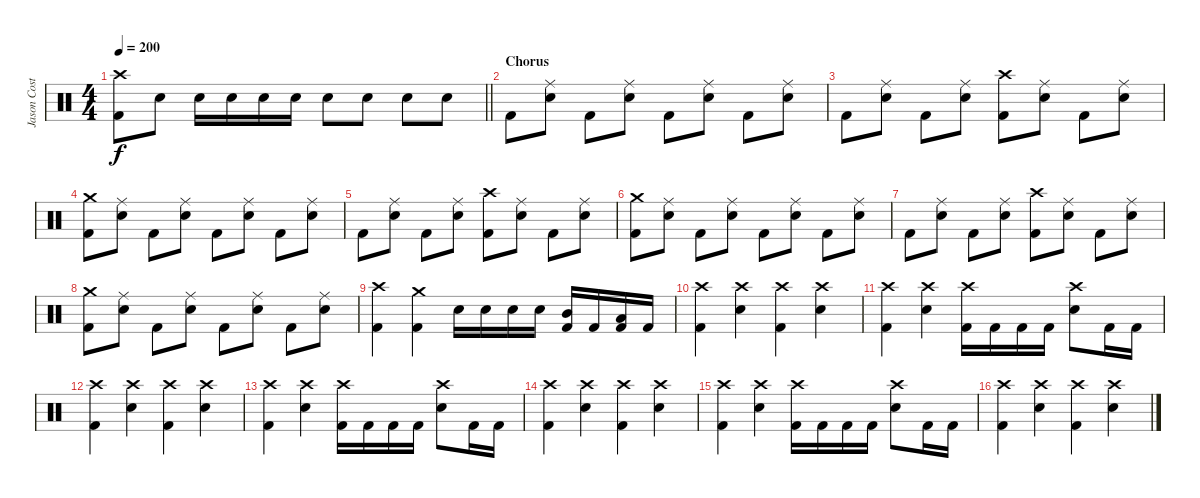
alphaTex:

\track ("Jason Costa" "Jason Cost") {instrument percussion}
\staff {score}
\articulation defaults
\ts (4 4)
\tempo 200
\clef neutral
\barLineRight lightlight
\ks c
("Crash high (hit)" "Kick (hit) 2").8{dy f} "Electric Snare (hit)".8 "Electric Snare (hit)".16 "Electric Snare (hit)".16 "Electric Snare (hit)".16 "Electric Snare (hit)".16 "Electric Snare (hit)".8 "Electric Snare (hit)".8 "Electric Snare (hit)".8 "Electric Snare (hit)".8 |
\section ("" "Chorus")
"Kick (hit) 2".8 ("Ride (middle)" "Electric Snare (hit)").8 "Kick (hit) 2".8 ("Ride (middle)" "Electric Snare (hit)").8 "Kick (hit) 2".8 ("Ride (middle)" "Electric Snare (hit)").8 "Kick (hit) 2".8 ("Ride (middle)" "Electric Snare (hit)").8 |
"Kick (hit) 2".8 ("Ride (middle)" "Electric Snare (hit)").8 "Kick (hit) 2".8 ("Ride (middle)" "Electric Snare (hit)").8 ("Crash high (hit)" "Kick (hit) 2").8 ("Ride (middle)" "Electric Snare (hit)").8 "Kick (hit) 2".8 ("Ride (middle)" "Electric Snare (hit)").8 |
("Crash medium (hit)" "Kick (hit) 2").8 ("Ride (middle)" "Electric Snare (hit)").8 "Kick (hit) 2".8 ("Ride (middle)" "Electric Snare (hit)").8 "Kick (hit) 2".8 ("Ride (middle)" "Electric Snare (hit)").8 "Kick (hit) 2".8 ("Ride (middle)" "Electric Snare (hit)").8 |
"Kick (hit) 2".8 ("Ride (middle)" "Electric Snare (hit)").8 "Kick (hit) 2".8 ("Ride (middle)" "Electric Snare (hit)").8 ("Crash high (hit)" "Kick (hit) 2").8 ("Ride (middle)" "Electric Snare (hit)").8 "Kick (hit) 2".8 ("Ride (middle)" "Electric Snare (hit)").8 |
("Crash medium (hit)" "Kick (hit) 2").8 ("Ride (middle)" "Electric Snare (hit)").8 "Kick (hit) 2".8 ("Ride (middle)" "Electric Snare (hit)").8 "Kick (hit) 2".8 ("Ride (middle)" "Electric Snare (hit)").8 "Kick (hit) 2".8 ("Ride (middle)" "Electric Snare (hit)").8 |
"Kick (hit) 2".8 ("Ride (middle)" "Electric Snare (hit)").8 "Kick (hit) 2".8 ("Ride (middle)" "Electric Snare (hit)").8 ("Crash high (hit)" "Kick (hit) 2").8 ("Ride (middle)" "Electric Snare (hit)").8 "Kick (hit) 2".8 ("Ride (middle)" "Electric Snare (hit)").8 |
("Crash medium (hit)" "Kick (hit) 2").8 ("Ride (middle)" "Electric Snare (hit)").8 "Kick (hit) 2".8 ("Ride (middle)" "Electric Snare (hit)").8 "Kick (hit) 2".8 ("Ride (middle)" "Electric Snare (hit)").8 "Kick (hit) 2".8 ("Ride (middle)" "Electric Snare (hit)").8 |
("Crash high (hit)" "Kick (hit) 2").4 ("Crash medium (hit)" "Kick (hit) 2").4 "Electric Snare (hit)".16 "Electric Snare (hit)".16 "Electric Snare (hit)".16 "Electric Snare (hit)".16 ("Mid Tom (hit)" "Kick (hit) 2").16 "Kick (hit) 2".16 ("Low Tom (hit)" "Kick (hit) 2").16 "Kick (hit) 2".16 |
("Crash high (hit)" "Kick (hit) 2").4 ("Crash high (hit)" "Electric Snare (hit)").4 ("Crash high (hit)" "Kick (hit) 2").4 ("Crash high (hit)" "Electric Snare (hit)").4 |
("Crash high (hit)" "Kick (hit) 2").4 ("Crash high (hit)" "Electric Snare (hit)").4 ("Crash high (hit)" "Kick (hit) 2").16 "Kick (hit) 2".16 "Kick (hit) 2".16 "Kick (hit) 2".16 ("Crash high (hit)" "Electric Snare (hit)").8 "Kick (hit) 2".16 "Kick (hit) 2".16 |
("Crash high (hit)" "Kick (hit) 2").4 ("Crash high (hit)" "Electric Snare (hit)").4 ("Crash high (hit)" "Kick (hit) 2").4 ("Crash high (hit)" "Electric Snare (hit)").4 |
("Crash high (hit)" "Kick (hit) 2").4 ("Crash high (hit)" "Electric Snare (hit)").4 ("Crash high (hit)" "Kick (hit) 2").16 "Kick (hit) 2".16 "Kick (hit) 2".16 "Kick (hit) 2".16 ("Crash high (hit)" "Electric Snare (hit)").8 "Kick (hit) 2".16 "Kick (hit) 2".16 |
("Crash high (hit)" "Kick (hit) 2").4 ("Crash high (hit)" "Electric Snare (hit)").4 ("Crash high (hit)" "Kick (hit) 2").4 ("Crash high (hit)" "Electric Snare (hit)").4 |
("Crash high (hit)" "Kick (hit) 2").4 ("Crash high (hit)" "Electric Snare (hit)").4 ("Crash high (hit)" "Kick (hit) 2").16 "Kick (hit) 2".16 "Kick (hit) 2".16 "Kick (hit) 2".16 ("Crash high (hit)" "Electric Snare (hit)").8 "Kick (hit) 2".16 "Kick (hit) 2".16 |
("Crash high (hit)" "Kick (hit) 2").4 ("Crash high (hit)" "Electric Snare (hit)").4 ("Crash high (hit)" "Kick (hit) 2").4 ("Crash high (hit)" "Electric Snare (hit)").4
